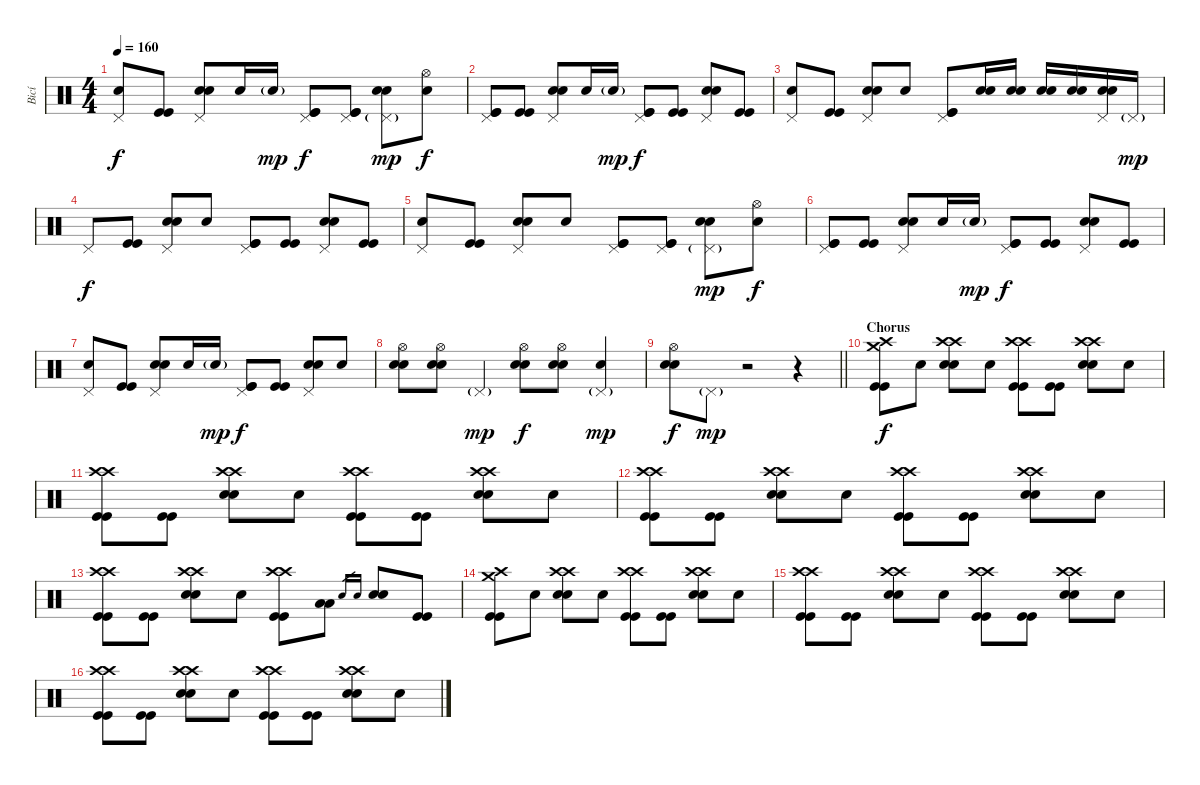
\track ("Bicí" "Bicí") {instrument percussion}
\staff {score}
\articulation defaults
\ts (4 4)
\tempo 160
\clef neutral
\ks c
("Pedal Hi-Hat (hit)" "Snare (hit)").8{dy f} ("Kick (hit)" "Kick (hit)").8 ("Pedal Hi-Hat (hit)" "Electric Snare (hit)" "Electric Snare (hit)").8 "Snare (hit)".16 "Electric Snare (hit)"{g}.16{dy mp} ("Pedal Hi-Hat (hit)" "Kick (hit)" "Kick (hit)").8{dy f} ("Pedal Hi-Hat (hit)" "Kick (hit)" "Kick (hit)").8 ("Pedal Hi-Hat (hit)"{g} "Electric Snare (hit)" "Electric Snare (hit)").8{dy mp} ("Hi-Hat (open)" "Snare (hit)").8{dy f} |
("Pedal Hi-Hat (hit)" "Kick (hit)" "Kick (hit)").8 ("Kick (hit)" "Kick (hit)").8 ("Pedal Hi-Hat (hit)" "Electric Snare (hit)" "Electric Snare (hit)").8 "Snare (hit)".16 "Electric Snare (hit)"{g}.16{dy mp} ("Pedal Hi-Hat (hit)" "Kick (hit)" "Kick (hit)").8{dy f} ("Kick (hit)" "Kick (hit)").8 ("Pedal Hi-Hat (hit)" "Electric Snare (hit)" "Electric Snare (hit)").8 ("Kick (hit)" "Kick (hit)").8 |
("Pedal Hi-Hat (hit)" "Snare (hit)").8 ("Kick (hit)" "Kick (hit)").8 ("Pedal Hi-Hat (hit)" "Electric Snare (hit)" "Electric Snare (hit)").8 "Snare (hit)".8 ("Pedal Hi-Hat (hit)" "Kick (hit)" "Kick (hit)").8 ("Electric Snare (hit)" "Electric Snare (hit)").16 ("Electric Snare (hit)" "Electric Snare (hit)").16 ("Electric Snare (hit)" "Electric Snare (hit)").16 ("Electric Snare (hit)" "Electric Snare (hit)").16 ("Pedal Hi-Hat (hit)" "Electric Snare (hit)" "Electric Snare (hit)").16 "Pedal Hi-Hat (hit)"{g}.16{dy mp} |
"Pedal Hi-Hat (hit)".8{dy f} ("Kick (hit)" "Kick (hit)").8 ("Pedal Hi-Hat (hit)" "Electric Snare (hit)" "Electric Snare (hit)").8 "Snare (hit)".8 ("Pedal Hi-Hat (hit)" "Kick (hit)" "Kick (hit)").8 ("Kick (hit)" "Kick (hit)").8 ("Pedal Hi-Hat (hit)" "Electric Snare (hit)" "Electric Snare (hit)").8 ("Kick (hit)" "Kick (hit)").8 |
("Pedal Hi-Hat (hit)" "Snare (hit)").8 ("Kick (hit)" "Kick (hit)").8 ("Pedal Hi-Hat (hit)" "Electric Snare (hit)" "Electric Snare (hit)").8 "Snare (hit)".8 ("Pedal Hi-Hat (hit)" "Kick (hit)" "Kick (hit)").8 ("Pedal Hi-Hat (hit)" "Kick (hit)" "Kick (hit)").8 ("Pedal Hi-Hat (hit)"{g} "Electric Snare (hit)" "Electric Snare (hit)").8{dy mp} ("Hi-Hat (open)" "Snare (hit)").8{dy f} |
("Pedal Hi-Hat (hit)" "Kick (hit)" "Kick (hit)").8 ("Kick (hit)" "Kick (hit)").8 ("Pedal Hi-Hat (hit)" "Electric Snare (hit)" "Electric Snare (hit)").8 "Snare (hit)".16 "Electric Snare (hit)"{g}.16{dy mp} ("Pedal Hi-Hat (hit)" "Kick (hit)" "Kick (hit)").8{dy f} ("Kick (hit)" "Kick (hit)").8 ("Pedal Hi-Hat (hit)" "Electric Snare (hit)" "Electric Snare (hit)").8 ("Kick (hit)" "Kick (hit)").8 |
("Pedal Hi-Hat (hit)" "Snare (hit)").8 ("Kick (hit)" "Kick (hit)").8 ("Pedal Hi-Hat (hit)" "Electric Snare (hit)" "Electric Snare (hit)").8 "Snare (hit)".16 "Electric Snare (hit)"{g}.16{dy mp} ("Pedal Hi-Hat (hit)" "Kick (hit)" "Kick (hit)").8{dy f} ("Kick (hit)" "Kick (hit)").8 ("Pedal Hi-Hat (hit)" "Electric Snare (hit)" "Electric Snare (hit)").8 "Snare (hit)".8 |
("Hi-Hat (open)" "Electric Snare (hit)" "Electric Snare (hit)").8 ("Hi-Hat (open)" "Electric Snare (hit)" "Electric Snare (hit)").8 "Pedal Hi-Hat (hit)"{g}.4{dy mp} ("Hi-Hat (open)" "Electric Snare (hit)" "Electric Snare (hit)").8{dy f} ("Hi-Hat (open)" "Electric Snare (hit)" "Electric Snare (hit)").8 ("Pedal Hi-Hat (hit)"{g} "Snare (hit)").4{dy mp} |
\barLineRight lightlight
("Hi-Hat (open)" "Electric Snare (hit)" "Electric Snare (hit)").8{dy f} "Pedal Hi-Hat (hit)"{g}.8{dy mp} r.2 r.4 |
\section ("" "Chorus")
("Crash medium (hit)" "Crash high (hit)" "Kick (hit)" "Kick (hit)").8{dy f} "Snare (hit)".8 ("Crash high (hit)" "Crash high (hit)" "Electric Snare (hit)" "Electric Snare (hit)").8 "Snare (hit)".8 ("Crash high (hit)" "Crash high (hit)" "Kick (hit)" "Kick (hit)").8 ("Kick (hit)" "Kick (hit)").8 ("Crash high (hit)" "Crash high (hit)" "Electric Snare (hit)" "Electric Snare (hit)").8 "Snare (hit)".8 |
("Crash high (hit)" "Crash high (hit)" "Kick (hit)" "Kick (hit)").8 ("Kick (hit)" "Kick (hit)").8 ("Crash high (hit)" "Crash high (hit)" "Electric Snare (hit)" "Electric Snare (hit)").8 "Snare (hit)".8 ("Crash high (hit)" "Crash high (hit)" "Kick (hit)" "Kick (hit)").8 ("Kick (hit)" "Kick (hit)").8 ("Crash high (hit)" "Crash high (hit)" "Electric Snare (hit)" "Electric Snare (hit)").8 "Snare (hit)".8 |
("Crash high (hit)" "Crash high (hit)" "Kick (hit)" "Kick (hit)").8 ("Kick (hit)" "Kick (hit)").8 ("Crash high (hit)" "Crash high (hit)" "Electric Snare (hit)" "Electric Snare (hit)").8 "Snare (hit)".8 ("Crash high (hit)" "Crash high (hit)" "Kick (hit)" "Kick (hit)").8 ("Kick (hit)" "Kick (hit)").8 ("Crash high (hit)" "Crash high (hit)" "Electric Snare (hit)" "Electric Snare (hit)").8 "Snare (hit)".8 |
("Crash high (hit)" "Crash high (hit)" "Kick (hit)" "Kick (hit)").8 ("Kick (hit)" "Kick (hit)").8 ("Crash high (hit)" "Crash high (hit)" "Electric Snare (hit)" "Electric Snare (hit)").8 "Snare (hit)".8 ("Crash high (hit)" "Crash high (hit)" "Kick (hit)" "Kick (hit)").8 ("Low Tom (hit)" "Low Tom (hit)").8 "Electric Snare (hit)".16{gr} "Electric Snare (hit)".16{gr} ("Electric Snare (hit)" "Electric Snare (hit)").8 ("Kick (hit)" "Kick (hit)").8 |
("Crash medium (hit)" "Crash high (hit)" "Kick (hit)" "Kick (hit)").8 "Snare (hit)".8 ("Crash high (hit)" "Crash high (hit)" "Electric Snare (hit)" "Electric Snare (hit)").8 "Snare (hit)".8 ("Crash high (hit)" "Crash high (hit)" "Kick (hit)" "Kick (hit)").8 ("Kick (hit)" "Kick (hit)").8 ("Crash high (hit)" "Crash high (hit)" "Electric Snare (hit)" "Electric Snare (hit)").8 "Snare (hit)".8 |
("Crash high (hit)" "Crash high (hit)" "Kick (hit)" "Kick (hit)").8 ("Kick (hit)" "Kick (hit)").8 ("Crash high (hit)" "Crash high (hit)" "Electric Snare (hit)" "Electric Snare (hit)").8 "Snare (hit)".8 ("Crash high (hit)" "Crash high (hit)" "Kick (hit)" "Kick (hit)").8 ("Kick (hit)" "Kick (hit)").8 ("Crash high (hit)" "Crash high (hit)" "Electric Snare (hit)" "Electric Snare (hit)").8 "Snare (hit)".8 |
("Crash high (hit)" "Crash high (hit)" "Kick (hit)" "Kick (hit)").8 ("Kick (hit)" "Kick (hit)").8 ("Crash high (hit)" "Crash high (hit)" "Electric Snare (hit)" "Electric Snare (hit)").8 "Snare (hit)".8 ("Crash high (hit)" "Crash high (hit)" "Kick (hit)" "Kick (hit)").8 ("Kick (hit)" "Kick (hit)").8 ("Crash high (hit)" "Crash high (hit)" "Electric Snare (hit)" "Electric Snare (hit)").8 "Snare (hit)".8
